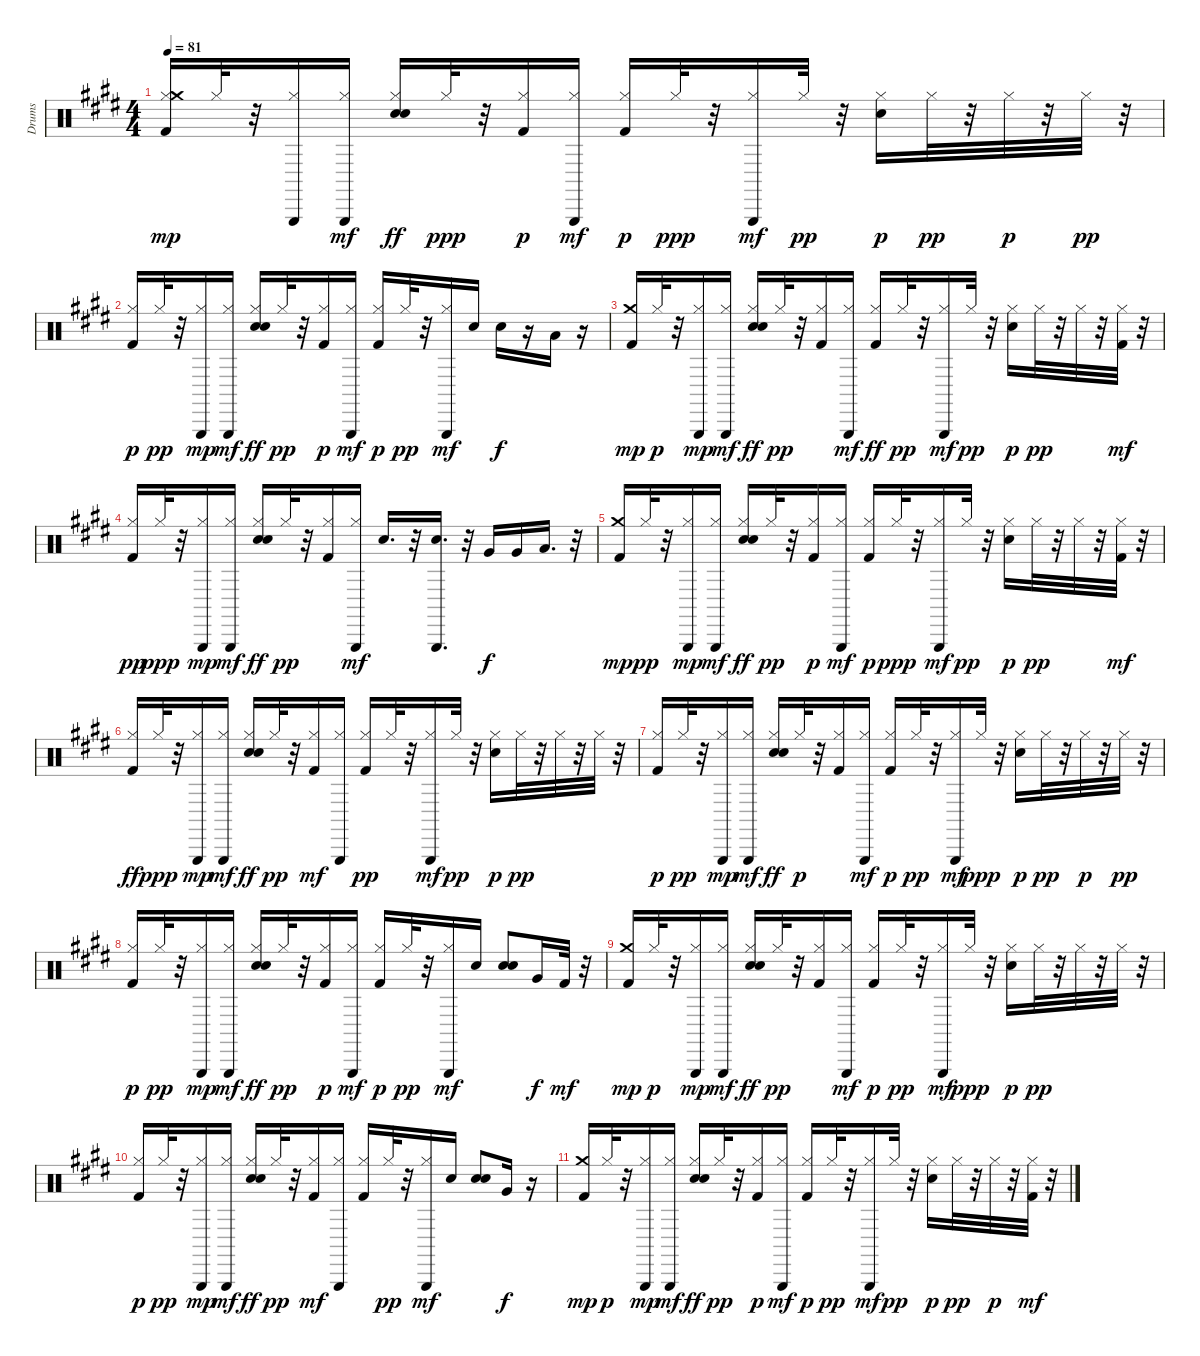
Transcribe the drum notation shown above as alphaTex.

\track ("Drums" "Drums") {instrument percussion}
\staff {score}
\articulation defaults
\ts (4 4)
\tempo 81
\clef neutral
\ks c#minor
("Hi-Hat (closed)" "Kick (hit) 2" "Crash medium (hit)").16{dy mp} "Hi-Hat (closed)".32 r.32 ("Hi-Hat (closed)" "Triangle (hit)").16 ("Hi-Hat (closed)" "Triangle (hit)").16{dy mf} ("Snare (hit) 2" "Hi-Hat (closed)" "Hand Clap (hit)").16{dy ff} "Hi-Hat (closed)".32{dy ppp} r.32 ("Hi-Hat (closed)" "Kick (hit) 2").16{dy p} ("Hi-Hat (closed)" "Triangle (hit)").16{dy mf} ("Hi-Hat (closed)" "Kick (hit) 2").16{dy p} "Hi-Hat (closed)".32{dy ppp} r.32 ("Hi-Hat (closed)" "Triangle (hit)").16{dy mf} "Hi-Hat (closed)".32{dy pp} r.32 ("Snare (hit) 2" "Hi-Hat (closed)").16{dy p} "Hi-Hat (closed)".32{dy pp} r.32 "Hi-Hat (closed)".32{dy p} r.32 "Hi-Hat (closed)".32{dy pp} r.32 |
\ks e
("Hi-Hat (closed)" "Kick (hit) 2").16{dy p} "Hi-Hat (closed)".32{dy pp} r.32 ("Hi-Hat (closed)" "Triangle (hit)").16{dy mp} ("Hi-Hat (closed)" "Triangle (hit)").16{dy mf} ("Snare (hit) 2" "Hi-Hat (closed)" "Hand Clap (hit)").16{dy ff} "Hi-Hat (closed)".32{dy pp} r.32 ("Hi-Hat (closed)" "Kick (hit) 2").16{dy p} ("Hi-Hat (closed)" "Triangle (hit)").16{dy mf} ("Hi-Hat (closed)" "Kick (hit) 2").16{dy p} "Hi-Hat (closed)".32{dy pp} r.32 ("Hi-Hat (closed)" "Triangle (hit)").16{dy mf} "Snare (hit) 2".16 "Snare (hit) 2".16{dy f} r.16 "Low Tom (hit)".16 r.16 |
\ks c#minor
("Kick (hit) 2" "Crash medium (hit)").16{dy mp} "Hi-Hat (closed)".32{dy p} r.32 ("Hi-Hat (closed)" "Triangle (hit)").16{dy mp} ("Hi-Hat (closed)" "Triangle (hit)").16{dy mf} ("Snare (hit) 2" "Hi-Hat (closed)" "Hand Clap (hit)").16{dy ff} "Hi-Hat (closed)".32{dy pp} r.32 ("Hi-Hat (closed)" "Kick (hit) 2").16 ("Hi-Hat (closed)" "Triangle (hit)").16{dy mf} ("Hi-Hat (closed)" "Kick (hit) 2").16{dy ff} "Hi-Hat (closed)".32{dy pp} r.32 ("Hi-Hat (closed)" "Triangle (hit)").16{dy mf} "Hi-Hat (closed)".32{dy pp} r.32 ("Snare (hit) 2" "Hi-Hat (closed)").16{dy p} "Hi-Hat (closed)".32{dy pp} r.32 "Hi-Hat (closed)".32 r.32 ("Hi-Hat (closed)" "Kick (hit) 2").32{dy mf} r.32 |
("Hi-Hat (closed)" "Kick (hit) 2").16{dy pp} "Hi-Hat (closed)".32{dy ppp} r.32 ("Hi-Hat (closed)" "Triangle (hit)").16{dy mp} ("Hi-Hat (closed)" "Triangle (hit)").16{dy mf} ("Snare (hit) 2" "Hi-Hat (closed)" "Hand Clap (hit)").16{dy ff} "Hi-Hat (closed)".32{dy pp} r.32 ("Hi-Hat (closed)" "Kick (hit) 2").16 ("Hi-Hat (closed)" "Triangle (hit)").16{dy mf} "Snare (hit) 2".16{d} r.32 ("Snare (hit) 2" "Triangle (hit)").16{d} r.32 "Very Low Tom (hit)".16{dy f} "Very Low Tom (hit)".16 "Low Tom (hit)".16{d} r.32 |
\ks e
("Kick (hit) 2" "Crash medium (hit)").16{dy mp} "Hi-Hat (closed)".32{dy pp} r.32 ("Hi-Hat (closed)" "Triangle (hit)").16{dy mp} ("Hi-Hat (closed)" "Triangle (hit)").16{dy mf} ("Snare (hit) 2" "Hi-Hat (closed)" "Hand Clap (hit)").16{dy ff} "Hi-Hat (closed)".32{dy pp} r.32 ("Hi-Hat (closed)" "Kick (hit) 2").16{dy p} ("Hi-Hat (closed)" "Triangle (hit)").16{dy mf} ("Hi-Hat (closed)" "Kick (hit) 2").16{dy p} "Hi-Hat (closed)".32{dy ppp} r.32 ("Hi-Hat (closed)" "Triangle (hit)").16{dy mf} "Hi-Hat (closed)".32{dy pp} r.32 ("Snare (hit) 2" "Hi-Hat (closed)").16{dy p} "Hi-Hat (closed)".32{dy pp} r.32 "Hi-Hat (closed)".32 r.32 ("Hi-Hat (closed)" "Kick (hit) 2").32{dy mf} r.32 |
\ks c#minor
("Hi-Hat (closed)" "Kick (hit) 2").16{dy ff} "Hi-Hat (closed)".32{dy ppp} r.32 ("Hi-Hat (closed)" "Triangle (hit)").16{dy mp} ("Hi-Hat (closed)" "Triangle (hit)").16{dy mf} ("Snare (hit) 2" "Hi-Hat (closed)" "Hand Clap (hit)").16{dy ff} "Hi-Hat (closed)".32{dy pp} r.32 ("Hi-Hat (closed)" "Kick (hit) 2").16{dy mf} ("Hi-Hat (closed)" "Triangle (hit)").16 ("Hi-Hat (closed)" "Kick (hit) 2").16{dy pp} "Hi-Hat (closed)".32 r.32 ("Hi-Hat (closed)" "Triangle (hit)").16{dy mf} "Hi-Hat (closed)".32{dy pp} r.32 ("Snare (hit) 2" "Hi-Hat (closed)").16{dy p} "Hi-Hat (closed)".32{dy pp} r.32 "Hi-Hat (closed)".32 r.32 "Hi-Hat (closed)".32 r.32 |
("Hi-Hat (closed)" "Kick (hit) 2").16{dy p} "Hi-Hat (closed)".32{dy pp} r.32 ("Hi-Hat (closed)" "Triangle (hit)").16{dy mp} ("Hi-Hat (closed)" "Triangle (hit)").16{dy mf} ("Snare (hit) 2" "Hi-Hat (closed)" "Hand Clap (hit)").16{dy ff} "Hi-Hat (closed)".32{dy p} r.32 ("Hi-Hat (closed)" "Kick (hit) 2").16 ("Hi-Hat (closed)" "Triangle (hit)").16{dy mf} ("Hi-Hat (closed)" "Kick (hit) 2").16{dy p} "Hi-Hat (closed)".32{dy pp} r.32 ("Hi-Hat (closed)" "Triangle (hit)").16{dy mf} "Hi-Hat (closed)".32{dy ppp} r.32 ("Snare (hit) 2" "Hi-Hat (closed)").16{dy p} "Hi-Hat (closed)".32{dy pp} r.32 "Hi-Hat (closed)".32{dy p} r.32 "Hi-Hat (closed)".32{dy pp} r.32 |
\ks e
("Hi-Hat (closed)" "Kick (hit) 2").16{dy p} "Hi-Hat (closed)".32{dy pp} r.32 ("Hi-Hat (closed)" "Triangle (hit)").16{dy mp} ("Hi-Hat (closed)" "Triangle (hit)").16{dy mf} ("Snare (hit) 2" "Hi-Hat (closed)" "Hand Clap (hit)").16{dy ff} "Hi-Hat (closed)".32{dy pp} r.32 ("Hi-Hat (closed)" "Kick (hit) 2").16{dy p} ("Hi-Hat (closed)" "Triangle (hit)").16{dy mf} ("Hi-Hat (closed)" "Kick (hit) 2").16{dy p} "Hi-Hat (closed)".32{dy pp} r.32 ("Hi-Hat (closed)" "Triangle (hit)").16{dy mf} "Snare (hit) 2".16 ("Snare (hit) 2" "Snare (hit) 2").8 "Very Low Tom (hit)".16{dy f} "Kick (hit) 2".32{dy mf} r.32 |
\ks c#minor
("Kick (hit) 2" "Crash medium (hit)").16{dy mp} "Hi-Hat (closed)".32{dy p} r.32 ("Hi-Hat (closed)" "Triangle (hit)").16{dy mp} ("Hi-Hat (closed)" "Triangle (hit)").16{dy mf} ("Snare (hit) 2" "Hi-Hat (closed)" "Hand Clap (hit)").16{dy ff} "Hi-Hat (closed)".32{dy pp} r.32 ("Hi-Hat (closed)" "Kick (hit) 2").16 ("Hi-Hat (closed)" "Triangle (hit)").16{dy mf} ("Hi-Hat (closed)" "Kick (hit) 2").16{dy p} "Hi-Hat (closed)".32{dy pp} r.32 ("Hi-Hat (closed)" "Triangle (hit)").16{dy mf} "Hi-Hat (closed)".32{dy ppp} r.32 ("Snare (hit) 2" "Hi-Hat (closed)").16{dy p} "Hi-Hat (closed)".32{dy pp} r.32 "Hi-Hat (closed)".32 r.32 "Hi-Hat (closed)".32 r.32 |
("Hi-Hat (closed)" "Kick (hit) 2").16{dy p} "Hi-Hat (closed)".32{dy pp} r.32 ("Hi-Hat (closed)" "Triangle (hit)").16{dy mp} ("Hi-Hat (closed)" "Triangle (hit)").16{dy mf} ("Snare (hit) 2" "Hi-Hat (closed)" "Hand Clap (hit)").16{dy ff} "Hi-Hat (closed)".32{dy pp} r.32 ("Hi-Hat (closed)" "Kick (hit) 2").16{dy mf} ("Hi-Hat (closed)" "Triangle (hit)").16 ("Hi-Hat (closed)" "Kick (hit) 2").16 "Hi-Hat (closed)".32{dy pp} r.32 ("Hi-Hat (closed)" "Triangle (hit)").16{dy mf} "Snare (hit) 2".16 ("Snare (hit) 2" "Snare (hit) 2").8 "Very Low Tom (hit)".16{dy f} r.16 |
("Kick (hit) 2" "Crash medium (hit)").16{dy mp} "Hi-Hat (closed)".32{dy p} r.32 ("Hi-Hat (closed)" "Triangle (hit)").16{dy mp} ("Hi-Hat (closed)" "Triangle (hit)").16{dy mf} ("Snare (hit) 2" "Hi-Hat (closed)" "Hand Clap (hit)").16{dy ff} "Hi-Hat (closed)".32{dy pp} r.32 ("Hi-Hat (closed)" "Kick (hit) 2").16{dy p} ("Hi-Hat (closed)" "Triangle (hit)").16{dy mf} ("Hi-Hat (closed)" "Kick (hit) 2").16{dy p} "Hi-Hat (closed)".32{dy pp} r.32 ("Hi-Hat (closed)" "Triangle (hit)").16{dy mf} "Hi-Hat (closed)".32{dy pp} r.32 ("Snare (hit) 2" "Hi-Hat (closed)").16{dy p} "Hi-Hat (closed)".32{dy pp} r.32 "Hi-Hat (closed)".32{dy p} r.32 ("Hi-Hat (closed)" "Kick (hit) 2").32{dy mf} r.32
